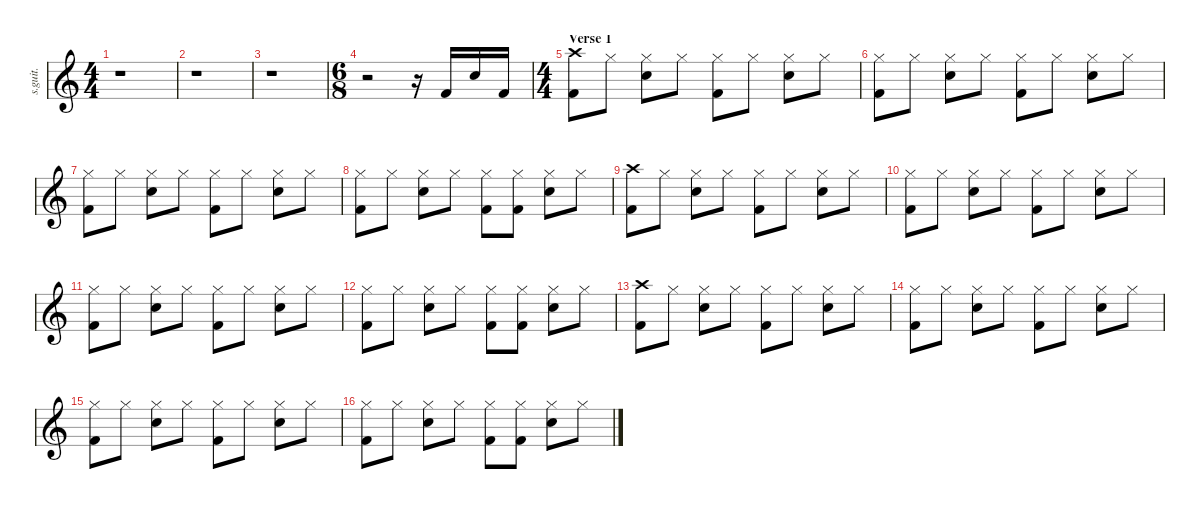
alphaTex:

\defaultSystemsLayout 4
\hideDynamics
\bracketExtendMode nobrackets
\track ("Nick Menza" "s.guit.") {instrument percussion}
\staff {score}
\articulation defaults
\ts (4 4)
\beaming (8 2 2 2 2)
\tempo (70 hide)
\clef g2
\ks c
r.1{dy f} |
r.1 |
r.1 |
\ts (6 8)
\beaming (8 2 2 2 2)
r.2 r.16 "Kick (hit) 2".16{lyrics (0 "") lyrics (1 "") lyrics (2 "") lyrics (3 "") lyrics (4 "")} "Snare (hit) 2".16{lyrics (0 "") lyrics (1 "") lyrics (2 "") lyrics (3 "") lyrics (4 "")} "Kick (hit) 2".16{lyrics (0 "") lyrics (1 "") lyrics (2 "") lyrics (3 "") lyrics (4 "")} |
\ts (4 4)
\beaming (8 2 2 2 2)
\section ("" "Verse 1")
\tempo (140 hide)
("Crash high (hit)" "Kick (hit) 2").8{lyrics (0 "") lyrics (1 "") lyrics (2 "") lyrics (3 "") lyrics (4 "")} "Hi-Hat (closed)".8{lyrics (0 "") lyrics (1 "") lyrics (2 "") lyrics (3 "") lyrics (4 "")} ("Hi-Hat (closed)" "Snare (hit) 2").8{lyrics (0 "") lyrics (1 "") lyrics (2 "") lyrics (3 "") lyrics (4 "")} "Hi-Hat (closed)".8{lyrics (0 "") lyrics (1 "") lyrics (2 "") lyrics (3 "") lyrics (4 "")} ("Hi-Hat (closed)" "Kick (hit) 2").8{lyrics (0 "") lyrics (1 "") lyrics (2 "") lyrics (3 "") lyrics (4 "")} "Hi-Hat (closed)".8{lyrics (0 "") lyrics (1 "") lyrics (2 "") lyrics (3 "") lyrics (4 "")} ("Hi-Hat (closed)" "Snare (hit) 2").8{lyrics (0 "") lyrics (1 "") lyrics (2 "") lyrics (3 "") lyrics (4 "")} "Hi-Hat (closed)".8{lyrics (0 "") lyrics (1 "") lyrics (2 "") lyrics (3 "") lyrics (4 "")} |
("Hi-Hat (closed)" "Kick (hit) 2").8{lyrics (0 "") lyrics (1 "") lyrics (2 "") lyrics (3 "") lyrics (4 "")} "Hi-Hat (closed)".8{lyrics (0 "") lyrics (1 "") lyrics (2 "") lyrics (3 "") lyrics (4 "")} ("Hi-Hat (closed)" "Snare (hit) 2").8{lyrics (0 "") lyrics (1 "") lyrics (2 "") lyrics (3 "") lyrics (4 "")} "Hi-Hat (closed)".8{lyrics (0 "") lyrics (1 "") lyrics (2 "") lyrics (3 "") lyrics (4 "")} ("Hi-Hat (closed)" "Kick (hit) 2").8{lyrics (0 "") lyrics (1 "") lyrics (2 "") lyrics (3 "") lyrics (4 "")} "Hi-Hat (closed)".8{lyrics (0 "") lyrics (1 "") lyrics (2 "") lyrics (3 "") lyrics (4 "")} ("Hi-Hat (closed)" "Snare (hit) 2").8{lyrics (0 "") lyrics (1 "") lyrics (2 "") lyrics (3 "") lyrics (4 "")} "Hi-Hat (closed)".8{lyrics (0 "") lyrics (1 "") lyrics (2 "") lyrics (3 "") lyrics (4 "")} |
("Hi-Hat (closed)" "Kick (hit) 2").8{lyrics (0 "") lyrics (1 "") lyrics (2 "") lyrics (3 "") lyrics (4 "")} "Hi-Hat (closed)".8{lyrics (0 "") lyrics (1 "") lyrics (2 "") lyrics (3 "") lyrics (4 "")} ("Hi-Hat (closed)" "Snare (hit) 2").8{lyrics (0 "") lyrics (1 "") lyrics (2 "") lyrics (3 "") lyrics (4 "")} "Hi-Hat (closed)".8{lyrics (0 "") lyrics (1 "") lyrics (2 "") lyrics (3 "") lyrics (4 "")} ("Hi-Hat (closed)" "Kick (hit) 2").8{lyrics (0 "") lyrics (1 "") lyrics (2 "") lyrics (3 "") lyrics (4 "")} "Hi-Hat (closed)".8{lyrics (0 "") lyrics (1 "") lyrics (2 "") lyrics (3 "") lyrics (4 "")} ("Hi-Hat (closed)" "Snare (hit) 2").8{lyrics (0 "") lyrics (1 "") lyrics (2 "") lyrics (3 "") lyrics (4 "")} "Hi-Hat (closed)".8{lyrics (0 "") lyrics (1 "") lyrics (2 "") lyrics (3 "") lyrics (4 "")} |
("Hi-Hat (closed)" "Kick (hit) 2").8{lyrics (0 "") lyrics (1 "") lyrics (2 "") lyrics (3 "") lyrics (4 "")} "Hi-Hat (closed)".8{lyrics (0 "") lyrics (1 "") lyrics (2 "") lyrics (3 "") lyrics (4 "")} ("Hi-Hat (closed)" "Snare (hit) 2").8{lyrics (0 "") lyrics (1 "") lyrics (2 "") lyrics (3 "") lyrics (4 "")} "Hi-Hat (closed)".8{lyrics (0 "") lyrics (1 "") lyrics (2 "") lyrics (3 "") lyrics (4 "")} ("Hi-Hat (closed)" "Kick (hit) 2").8{lyrics (0 "") lyrics (1 "") lyrics (2 "") lyrics (3 "") lyrics (4 "")} ("Hi-Hat (closed)" "Kick (hit) 2").8{lyrics (0 "") lyrics (1 "") lyrics (2 "") lyrics (3 "") lyrics (4 "")} ("Hi-Hat (closed)" "Snare (hit) 2").8{lyrics (0 "") lyrics (1 "") lyrics (2 "") lyrics (3 "") lyrics (4 "")} "Hi-Hat (closed)".8{lyrics (0 "") lyrics (1 "") lyrics (2 "") lyrics (3 "") lyrics (4 "")} |
("Crash high (hit)" "Kick (hit) 2").8{lyrics (0 "") lyrics (1 "") lyrics (2 "") lyrics (3 "") lyrics (4 "")} "Hi-Hat (closed)".8{lyrics (0 "") lyrics (1 "") lyrics (2 "") lyrics (3 "") lyrics (4 "")} ("Hi-Hat (closed)" "Snare (hit) 2").8{lyrics (0 "") lyrics (1 "") lyrics (2 "") lyrics (3 "") lyrics (4 "")} "Hi-Hat (closed)".8{lyrics (0 "") lyrics (1 "") lyrics (2 "") lyrics (3 "") lyrics (4 "")} ("Hi-Hat (closed)" "Kick (hit) 2").8{lyrics (0 "") lyrics (1 "") lyrics (2 "") lyrics (3 "") lyrics (4 "")} "Hi-Hat (closed)".8{lyrics (0 "") lyrics (1 "") lyrics (2 "") lyrics (3 "") lyrics (4 "")} ("Hi-Hat (closed)" "Snare (hit) 2").8{lyrics (0 "") lyrics (1 "") lyrics (2 "") lyrics (3 "") lyrics (4 "")} "Hi-Hat (closed)".8{lyrics (0 "") lyrics (1 "") lyrics (2 "") lyrics (3 "") lyrics (4 "")} |
("Hi-Hat (closed)" "Kick (hit) 2").8{lyrics (0 "") lyrics (1 "") lyrics (2 "") lyrics (3 "") lyrics (4 "")} "Hi-Hat (closed)".8{lyrics (0 "") lyrics (1 "") lyrics (2 "") lyrics (3 "") lyrics (4 "")} ("Hi-Hat (closed)" "Snare (hit) 2").8{lyrics (0 "") lyrics (1 "") lyrics (2 "") lyrics (3 "") lyrics (4 "")} "Hi-Hat (closed)".8{lyrics (0 "") lyrics (1 "") lyrics (2 "") lyrics (3 "") lyrics (4 "")} ("Hi-Hat (closed)" "Kick (hit) 2").8{lyrics (0 "") lyrics (1 "") lyrics (2 "") lyrics (3 "") lyrics (4 "")} "Hi-Hat (closed)".8{lyrics (0 "") lyrics (1 "") lyrics (2 "") lyrics (3 "") lyrics (4 "")} ("Hi-Hat (closed)" "Snare (hit) 2").8{lyrics (0 "") lyrics (1 "") lyrics (2 "") lyrics (3 "") lyrics (4 "")} "Hi-Hat (closed)".8{lyrics (0 "") lyrics (1 "") lyrics (2 "") lyrics (3 "") lyrics (4 "")} |
("Hi-Hat (closed)" "Kick (hit) 2").8{lyrics (0 "") lyrics (1 "") lyrics (2 "") lyrics (3 "") lyrics (4 "")} "Hi-Hat (closed)".8{lyrics (0 "") lyrics (1 "") lyrics (2 "") lyrics (3 "") lyrics (4 "")} ("Hi-Hat (closed)" "Snare (hit) 2").8{lyrics (0 "") lyrics (1 "") lyrics (2 "") lyrics (3 "") lyrics (4 "")} "Hi-Hat (closed)".8{lyrics (0 "") lyrics (1 "") lyrics (2 "") lyrics (3 "") lyrics (4 "")} ("Hi-Hat (closed)" "Kick (hit) 2").8{lyrics (0 "") lyrics (1 "") lyrics (2 "") lyrics (3 "") lyrics (4 "")} "Hi-Hat (closed)".8{lyrics (0 "") lyrics (1 "") lyrics (2 "") lyrics (3 "") lyrics (4 "")} ("Hi-Hat (closed)" "Snare (hit) 2").8{lyrics (0 "") lyrics (1 "") lyrics (2 "") lyrics (3 "") lyrics (4 "")} "Hi-Hat (closed)".8{lyrics (0 "") lyrics (1 "") lyrics (2 "") lyrics (3 "") lyrics (4 "")} |
("Hi-Hat (closed)" "Kick (hit) 2").8{lyrics (0 "") lyrics (1 "") lyrics (2 "") lyrics (3 "") lyrics (4 "")} "Hi-Hat (closed)".8{lyrics (0 "") lyrics (1 "") lyrics (2 "") lyrics (3 "") lyrics (4 "")} ("Hi-Hat (closed)" "Snare (hit) 2").8{lyrics (0 "") lyrics (1 "") lyrics (2 "") lyrics (3 "") lyrics (4 "")} "Hi-Hat (closed)".8{lyrics (0 "") lyrics (1 "") lyrics (2 "") lyrics (3 "") lyrics (4 "")} ("Hi-Hat (closed)" "Kick (hit) 2").8{lyrics (0 "") lyrics (1 "") lyrics (2 "") lyrics (3 "") lyrics (4 "")} ("Hi-Hat (closed)" "Kick (hit) 2").8{lyrics (0 "") lyrics (1 "") lyrics (2 "") lyrics (3 "") lyrics (4 "")} ("Hi-Hat (closed)" "Snare (hit) 2").8{lyrics (0 "") lyrics (1 "") lyrics (2 "") lyrics (3 "") lyrics (4 "")} "Hi-Hat (closed)".8{lyrics (0 "") lyrics (1 "") lyrics (2 "") lyrics (3 "") lyrics (4 "")} |
("Crash high (hit)" "Kick (hit) 2").8{lyrics (0 "") lyrics (1 "") lyrics (2 "") lyrics (3 "") lyrics (4 "")} "Hi-Hat (closed)".8{lyrics (0 "") lyrics (1 "") lyrics (2 "") lyrics (3 "") lyrics (4 "")} ("Hi-Hat (closed)" "Snare (hit) 2").8{lyrics (0 "") lyrics (1 "") lyrics (2 "") lyrics (3 "") lyrics (4 "")} "Hi-Hat (closed)".8{lyrics (0 "") lyrics (1 "") lyrics (2 "") lyrics (3 "") lyrics (4 "")} ("Hi-Hat (closed)" "Kick (hit) 2").8{lyrics (0 "") lyrics (1 "") lyrics (2 "") lyrics (3 "") lyrics (4 "")} "Hi-Hat (closed)".8{lyrics (0 "") lyrics (1 "") lyrics (2 "") lyrics (3 "") lyrics (4 "")} ("Hi-Hat (closed)" "Snare (hit) 2").8{lyrics (0 "") lyrics (1 "") lyrics (2 "") lyrics (3 "") lyrics (4 "")} "Hi-Hat (closed)".8{lyrics (0 "") lyrics (1 "") lyrics (2 "") lyrics (3 "") lyrics (4 "")} |
("Hi-Hat (closed)" "Kick (hit) 2").8{lyrics (0 "") lyrics (1 "") lyrics (2 "") lyrics (3 "") lyrics (4 "")} "Hi-Hat (closed)".8{lyrics (0 "") lyrics (1 "") lyrics (2 "") lyrics (3 "") lyrics (4 "")} ("Hi-Hat (closed)" "Snare (hit) 2").8{lyrics (0 "") lyrics (1 "") lyrics (2 "") lyrics (3 "") lyrics (4 "")} "Hi-Hat (closed)".8{lyrics (0 "") lyrics (1 "") lyrics (2 "") lyrics (3 "") lyrics (4 "")} ("Hi-Hat (closed)" "Kick (hit) 2").8{lyrics (0 "") lyrics (1 "") lyrics (2 "") lyrics (3 "") lyrics (4 "")} "Hi-Hat (closed)".8{lyrics (0 "") lyrics (1 "") lyrics (2 "") lyrics (3 "") lyrics (4 "")} ("Hi-Hat (closed)" "Snare (hit) 2").8{lyrics (0 "") lyrics (1 "") lyrics (2 "") lyrics (3 "") lyrics (4 "")} "Hi-Hat (closed)".8{lyrics (0 "") lyrics (1 "") lyrics (2 "") lyrics (3 "") lyrics (4 "")} |
("Hi-Hat (closed)" "Kick (hit) 2").8{lyrics (0 "") lyrics (1 "") lyrics (2 "") lyrics (3 "") lyrics (4 "")} "Hi-Hat (closed)".8{lyrics (0 "") lyrics (1 "") lyrics (2 "") lyrics (3 "") lyrics (4 "")} ("Hi-Hat (closed)" "Snare (hit) 2").8{lyrics (0 "") lyrics (1 "") lyrics (2 "") lyrics (3 "") lyrics (4 "")} "Hi-Hat (closed)".8{lyrics (0 "") lyrics (1 "") lyrics (2 "") lyrics (3 "") lyrics (4 "")} ("Hi-Hat (closed)" "Kick (hit) 2").8{lyrics (0 "") lyrics (1 "") lyrics (2 "") lyrics (3 "") lyrics (4 "")} "Hi-Hat (closed)".8{lyrics (0 "") lyrics (1 "") lyrics (2 "") lyrics (3 "") lyrics (4 "")} ("Hi-Hat (closed)" "Snare (hit) 2").8{lyrics (0 "") lyrics (1 "") lyrics (2 "") lyrics (3 "") lyrics (4 "")} "Hi-Hat (closed)".8{lyrics (0 "") lyrics (1 "") lyrics (2 "") lyrics (3 "") lyrics (4 "")} |
("Hi-Hat (closed)" "Kick (hit) 2").8{lyrics (0 "") lyrics (1 "") lyrics (2 "") lyrics (3 "") lyrics (4 "")} "Hi-Hat (closed)".8{lyrics (0 "") lyrics (1 "") lyrics (2 "") lyrics (3 "") lyrics (4 "")} ("Hi-Hat (closed)" "Snare (hit) 2").8{lyrics (0 "") lyrics (1 "") lyrics (2 "") lyrics (3 "") lyrics (4 "")} "Hi-Hat (closed)".8{lyrics (0 "") lyrics (1 "") lyrics (2 "") lyrics (3 "") lyrics (4 "")} ("Hi-Hat (closed)" "Kick (hit) 2").8{lyrics (0 "") lyrics (1 "") lyrics (2 "") lyrics (3 "") lyrics (4 "")} ("Hi-Hat (closed)" "Kick (hit) 2").8{lyrics (0 "") lyrics (1 "") lyrics (2 "") lyrics (3 "") lyrics (4 "")} ("Hi-Hat (closed)" "Snare (hit) 2").8{lyrics (0 "") lyrics (1 "") lyrics (2 "") lyrics (3 "") lyrics (4 "")} "Hi-Hat (closed)".8{lyrics (0 "") lyrics (1 "") lyrics (2 "") lyrics (3 "") lyrics (4 "")}
